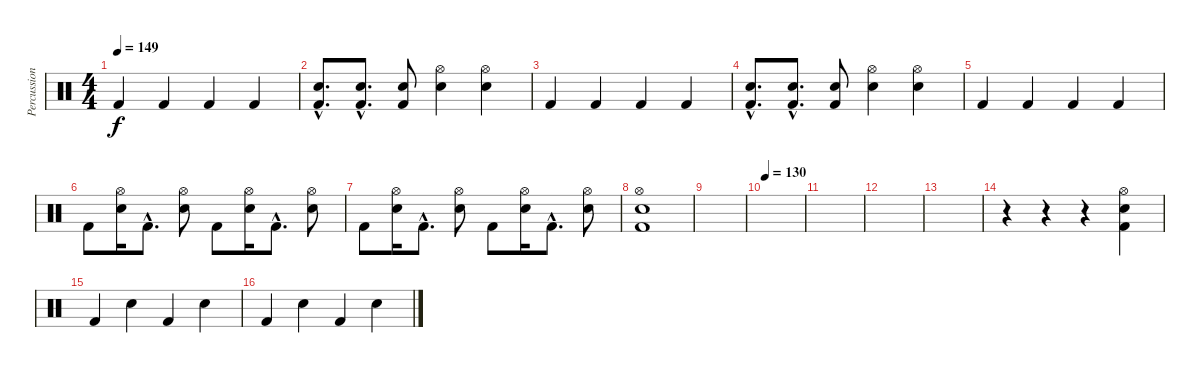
\track ("Percussion" "Percussion") {instrument percussion}
\staff {score}
\articulation defaults
\ts (4 4)
\tempo 149
\clef neutral
\ks c "Kick (hit) 2".4{dy f} "Kick (hit) 2".4 "Kick (hit) 2".4 "Kick (hit) 2".4
|
("Snare (hit) 2"{hac} "Kick (hit) 2"{hac}).8{d} ("Snare (hit) 2"{hac} "Kick (hit) 2"{hac}).8{d} ("Snare (hit) 2" "Kick (hit) 2").8 ("Hi-Hat (open)" "Snare (hit) 2").4 ("Hi-Hat (open)" "Snare (hit) 2").4 |
"Kick (hit) 2".4 "Kick (hit) 2".4 "Kick (hit) 2".4 "Kick (hit) 2".4 |
("Snare (hit) 2"{hac} "Kick (hit) 2"{hac}).8{d} ("Snare (hit) 2"{hac} "Kick (hit) 2"{hac}).8{d} ("Snare (hit) 2" "Kick (hit) 2").8 ("Hi-Hat (open)" "Snare (hit) 2").4 ("Hi-Hat (open)" "Snare (hit) 2").4 |
"Kick (hit) 2".4 "Kick (hit) 2".4 "Kick (hit) 2".4 "Kick (hit) 2".4 |
"Kick (hit) 2".8 ("Snare (hit) 2" "Hi-Hat (open)").16 "Kick (hit) 2"{hac}.8{d} ("Snare (hit) 2" "Hi-Hat (open)").8 "Kick (hit) 2".8 ("Snare (hit) 2" "Hi-Hat (open)").16 "Kick (hit) 2"{hac}.8{d} ("Snare (hit) 2" "Hi-Hat (open)").8 |
"Kick (hit) 2".8 ("Snare (hit) 2" "Hi-Hat (open)").16 "Kick (hit) 2"{hac}.8{d} ("Snare (hit) 2" "Hi-Hat (open)").8 "Kick (hit) 2".8 ("Snare (hit) 2" "Hi-Hat (open)").16 "Kick (hit) 2"{hac}.8{d} ("Snare (hit) 2" "Hi-Hat (open)").8 |
("Hi-Hat (open)" "Snare (hit) 2" "Kick (hit) 2").1 |
|
\tempo 130
|
|
|
|
r.4 r.4 r.4 ("Hi-Hat (open)" "Snare (hit) 2" "Kick (hit) 2").4 |
"Kick (hit) 2".4 "Snare (hit) 2".4 "Kick (hit) 2".4 "Snare (hit) 2".4 |
"Kick (hit) 2".4 "Snare (hit) 2".4 "Kick (hit) 2".4 "Snare (hit) 2".4
